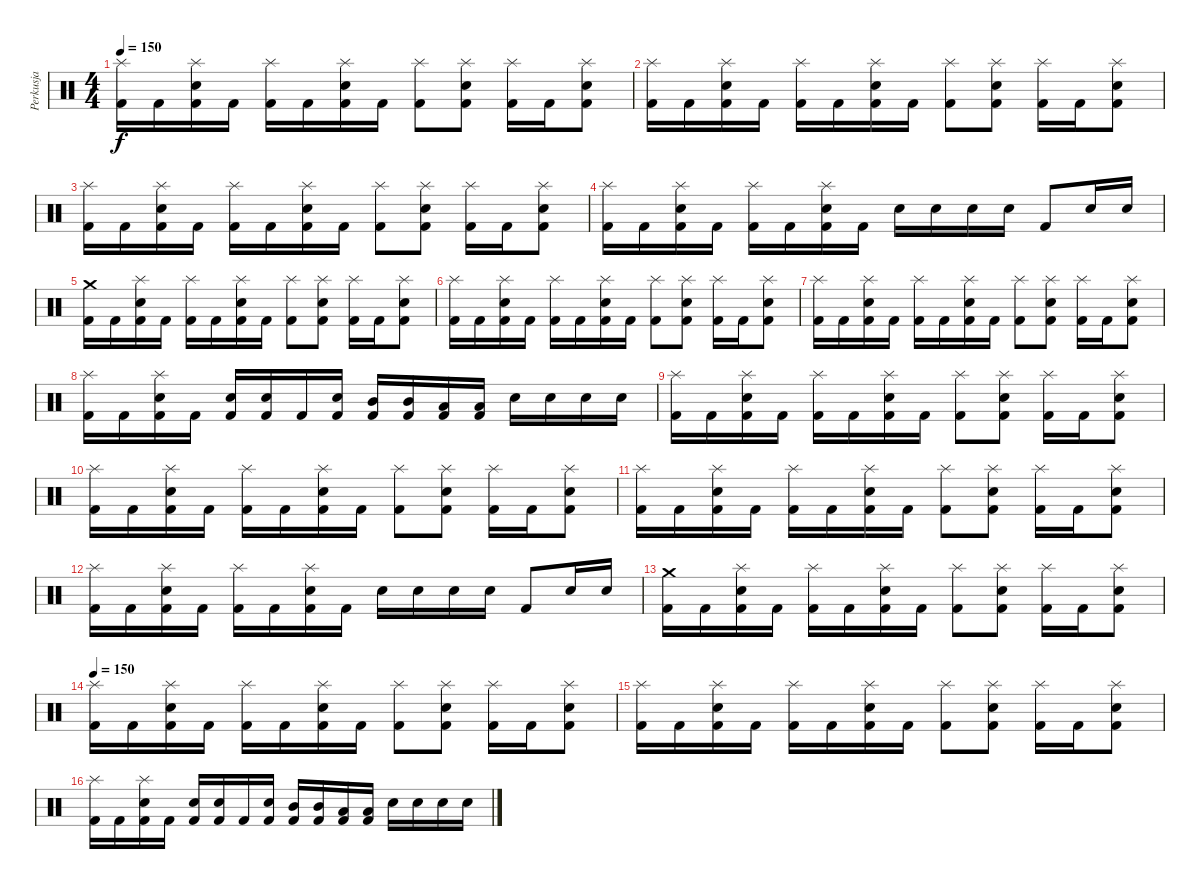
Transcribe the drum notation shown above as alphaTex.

\track ("Perkusja" "Perkusja") {instrument percussion}
\staff {score}
\articulation defaults
\ts (4 4)
\tempo 150
\clef neutral
\ks c
("Splash (hit)" "Kick (hit) 2").16{dy f} "Kick (hit) 2".16 ("Splash (hit)" "Electric Snare (hit)" "Kick (hit) 2").16 "Kick (hit) 2".16 ("Splash (hit)" "Kick (hit) 2").16 "Kick (hit) 2".16 ("Splash (hit)" "Electric Snare (hit)" "Kick (hit) 2").16 "Kick (hit) 2".16 ("Splash (hit)" "Kick (hit) 2").8 ("Splash (hit)" "Electric Snare (hit)" "Kick (hit) 2").8 ("Splash (hit)" "Kick (hit) 2").16 "Kick (hit) 2".16 ("Splash (hit)" "Electric Snare (hit)" "Kick (hit) 2").8 |
("Splash (hit)" "Kick (hit) 2").16 "Kick (hit) 2".16 ("Splash (hit)" "Electric Snare (hit)" "Kick (hit) 2").16 "Kick (hit) 2".16 ("Splash (hit)" "Kick (hit) 2").16 "Kick (hit) 2".16 ("Splash (hit)" "Electric Snare (hit)" "Kick (hit) 2").16 "Kick (hit) 2".16 ("Splash (hit)" "Kick (hit) 2").8 ("Splash (hit)" "Electric Snare (hit)" "Kick (hit) 2").8 ("Splash (hit)" "Kick (hit) 2").16 "Kick (hit) 2".16 ("Splash (hit)" "Electric Snare (hit)" "Kick (hit) 2").8 |
("Splash (hit)" "Kick (hit) 2").16 "Kick (hit) 2".16 ("Splash (hit)" "Electric Snare (hit)" "Kick (hit) 2").16 "Kick (hit) 2".16 ("Splash (hit)" "Kick (hit) 2").16 "Kick (hit) 2".16 ("Splash (hit)" "Electric Snare (hit)" "Kick (hit) 2").16 "Kick (hit) 2".16 ("Splash (hit)" "Kick (hit) 2").8 ("Splash (hit)" "Electric Snare (hit)" "Kick (hit) 2").8 ("Splash (hit)" "Kick (hit) 2").16 "Kick (hit) 2".16 ("Splash (hit)" "Electric Snare (hit)" "Kick (hit) 2").8 |
("Splash (hit)" "Kick (hit) 2").16 "Kick (hit) 2".16 ("Splash (hit)" "Electric Snare (hit)" "Kick (hit) 2").16 "Kick (hit) 2".16 ("Splash (hit)" "Kick (hit) 2").16 "Kick (hit) 2".16 ("Splash (hit)" "Electric Snare (hit)" "Kick (hit) 2").16 "Kick (hit) 2".16 "Electric Snare (hit)".16 "Electric Snare (hit)".16 "Electric Snare (hit)".16 "Electric Snare (hit)".16 "Kick (hit) 2".8 "Electric Snare (hit)".16 "Electric Snare (hit)".16 |
("Crash medium (hit)" "Kick (hit) 2").16 "Kick (hit) 2".16 ("Splash (hit)" "Electric Snare (hit)" "Kick (hit) 2").16 "Kick (hit) 2".16 ("Splash (hit)" "Kick (hit) 2").16 "Kick (hit) 2".16 ("Splash (hit)" "Electric Snare (hit)" "Kick (hit) 2").16 "Kick (hit) 2".16 ("Splash (hit)" "Kick (hit) 2").8 ("Splash (hit)" "Electric Snare (hit)" "Kick (hit) 2").8 ("Splash (hit)" "Kick (hit) 2").16 "Kick (hit) 2".16 ("Splash (hit)" "Electric Snare (hit)" "Kick (hit) 2").8 |
("Splash (hit)" "Kick (hit) 2").16 "Kick (hit) 2".16 ("Splash (hit)" "Electric Snare (hit)" "Kick (hit) 2").16 "Kick (hit) 2".16 ("Splash (hit)" "Kick (hit) 2").16 "Kick (hit) 2".16 ("Splash (hit)" "Electric Snare (hit)" "Kick (hit) 2").16 "Kick (hit) 2".16 ("Splash (hit)" "Kick (hit) 2").8 ("Splash (hit)" "Electric Snare (hit)" "Kick (hit) 2").8 ("Splash (hit)" "Kick (hit) 2").16 "Kick (hit) 2".16 ("Splash (hit)" "Electric Snare (hit)" "Kick (hit) 2").8 |
("Splash (hit)" "Kick (hit) 2").16 "Kick (hit) 2".16 ("Splash (hit)" "Electric Snare (hit)" "Kick (hit) 2").16 "Kick (hit) 2".16 ("Splash (hit)" "Kick (hit) 2").16 "Kick (hit) 2".16 ("Splash (hit)" "Electric Snare (hit)" "Kick (hit) 2").16 "Kick (hit) 2".16 ("Splash (hit)" "Kick (hit) 2").8 ("Splash (hit)" "Electric Snare (hit)" "Kick (hit) 2").8 ("Splash (hit)" "Kick (hit) 2").16 "Kick (hit) 2".16 ("Splash (hit)" "Electric Snare (hit)" "Kick (hit) 2").8 |
("Splash (hit)" "Kick (hit) 2").16 "Kick (hit) 2".16 ("Splash (hit)" "Electric Snare (hit)" "Kick (hit) 2").16 "Kick (hit) 2".16 ("Electric Snare (hit)" "Kick (hit) 2").16 ("Electric Snare (hit)" "Kick (hit) 2").16 "Kick (hit) 2".16 ("Electric Snare (hit)" "Kick (hit) 2").16 ("Mid Tom (hit)" "Kick (hit) 2").16 ("Mid Tom (hit)" "Kick (hit) 2").16 ("Low Tom (hit)" "Kick (hit) 2").16 ("Low Tom (hit)" "Kick (hit) 2").16 "Electric Snare (hit)".16 "Electric Snare (hit)".16 "Electric Snare (hit)".16 "Electric Snare (hit)".16 |
("Splash (hit)" "Kick (hit) 2").16 "Kick (hit) 2".16 ("Splash (hit)" "Electric Snare (hit)" "Kick (hit) 2").16 "Kick (hit) 2".16 ("Splash (hit)" "Kick (hit) 2").16 "Kick (hit) 2".16 ("Splash (hit)" "Electric Snare (hit)" "Kick (hit) 2").16 "Kick (hit) 2".16 ("Splash (hit)" "Kick (hit) 2").8 ("Splash (hit)" "Electric Snare (hit)" "Kick (hit) 2").8 ("Splash (hit)" "Kick (hit) 2").16 "Kick (hit) 2".16 ("Splash (hit)" "Electric Snare (hit)" "Kick (hit) 2").8 |
("Splash (hit)" "Kick (hit) 2").16 "Kick (hit) 2".16 ("Splash (hit)" "Electric Snare (hit)" "Kick (hit) 2").16 "Kick (hit) 2".16 ("Splash (hit)" "Kick (hit) 2").16 "Kick (hit) 2".16 ("Splash (hit)" "Electric Snare (hit)" "Kick (hit) 2").16 "Kick (hit) 2".16 ("Splash (hit)" "Kick (hit) 2").8 ("Splash (hit)" "Electric Snare (hit)" "Kick (hit) 2").8 ("Splash (hit)" "Kick (hit) 2").16 "Kick (hit) 2".16 ("Splash (hit)" "Electric Snare (hit)" "Kick (hit) 2").8 |
("Splash (hit)" "Kick (hit) 2").16 "Kick (hit) 2".16 ("Splash (hit)" "Electric Snare (hit)" "Kick (hit) 2").16 "Kick (hit) 2".16 ("Splash (hit)" "Kick (hit) 2").16 "Kick (hit) 2".16 ("Splash (hit)" "Electric Snare (hit)" "Kick (hit) 2").16 "Kick (hit) 2".16 ("Splash (hit)" "Kick (hit) 2").8 ("Splash (hit)" "Electric Snare (hit)" "Kick (hit) 2").8 ("Splash (hit)" "Kick (hit) 2").16 "Kick (hit) 2".16 ("Splash (hit)" "Electric Snare (hit)" "Kick (hit) 2").8 |
("Splash (hit)" "Kick (hit) 2").16 "Kick (hit) 2".16 ("Splash (hit)" "Electric Snare (hit)" "Kick (hit) 2").16 "Kick (hit) 2".16 ("Splash (hit)" "Kick (hit) 2").16 "Kick (hit) 2".16 ("Splash (hit)" "Electric Snare (hit)" "Kick (hit) 2").16 "Kick (hit) 2".16 "Electric Snare (hit)".16 "Electric Snare (hit)".16 "Electric Snare (hit)".16 "Electric Snare (hit)".16 "Kick (hit) 2".8 "Electric Snare (hit)".16 "Electric Snare (hit)".16 |
("Crash medium (hit)" "Kick (hit) 2").16 "Kick (hit) 2".16 ("Splash (hit)" "Electric Snare (hit)" "Kick (hit) 2").16 "Kick (hit) 2".16 ("Splash (hit)" "Kick (hit) 2").16 "Kick (hit) 2".16 ("Splash (hit)" "Electric Snare (hit)" "Kick (hit) 2").16 "Kick (hit) 2".16 ("Splash (hit)" "Kick (hit) 2").8 ("Splash (hit)" "Electric Snare (hit)" "Kick (hit) 2").8 ("Splash (hit)" "Kick (hit) 2").16 "Kick (hit) 2".16 ("Splash (hit)" "Electric Snare (hit)" "Kick (hit) 2").8 |
\tempo 150
("Splash (hit)" "Kick (hit) 2").16 "Kick (hit) 2".16 ("Splash (hit)" "Electric Snare (hit)" "Kick (hit) 2").16 "Kick (hit) 2".16 ("Splash (hit)" "Kick (hit) 2").16 "Kick (hit) 2".16 ("Splash (hit)" "Electric Snare (hit)" "Kick (hit) 2").16 "Kick (hit) 2".16 ("Splash (hit)" "Kick (hit) 2").8 ("Splash (hit)" "Electric Snare (hit)" "Kick (hit) 2").8 ("Splash (hit)" "Kick (hit) 2").16 "Kick (hit) 2".16 ("Splash (hit)" "Electric Snare (hit)" "Kick (hit) 2").8 |
("Splash (hit)" "Kick (hit) 2").16 "Kick (hit) 2".16 ("Splash (hit)" "Electric Snare (hit)" "Kick (hit) 2").16 "Kick (hit) 2".16 ("Splash (hit)" "Kick (hit) 2").16 "Kick (hit) 2".16 ("Splash (hit)" "Electric Snare (hit)" "Kick (hit) 2").16 "Kick (hit) 2".16 ("Splash (hit)" "Kick (hit) 2").8 ("Splash (hit)" "Electric Snare (hit)" "Kick (hit) 2").8 ("Splash (hit)" "Kick (hit) 2").16 "Kick (hit) 2".16 ("Splash (hit)" "Electric Snare (hit)" "Kick (hit) 2").8 |
("Splash (hit)" "Kick (hit) 2").16 "Kick (hit) 2".16 ("Splash (hit)" "Electric Snare (hit)" "Kick (hit) 2").16 "Kick (hit) 2".16 ("Electric Snare (hit)" "Kick (hit) 2").16 ("Electric Snare (hit)" "Kick (hit) 2").16 "Kick (hit) 2".16 ("Electric Snare (hit)" "Kick (hit) 2").16 ("Mid Tom (hit)" "Kick (hit) 2").16 ("Mid Tom (hit)" "Kick (hit) 2").16 ("Low Tom (hit)" "Kick (hit) 2").16 ("Low Tom (hit)" "Kick (hit) 2").16 "Electric Snare (hit)".16 "Electric Snare (hit)".16 "Electric Snare (hit)".16 "Electric Snare (hit)".16
